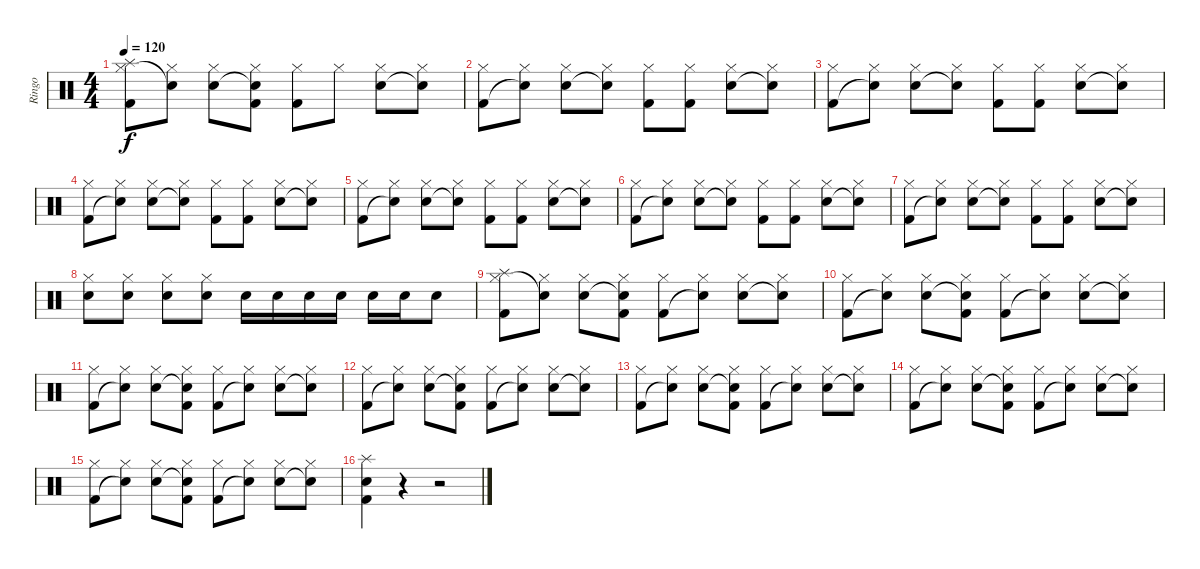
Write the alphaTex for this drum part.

\track ("Ringo" "Ringo") {instrument percussion}
\staff {score}
\articulation defaults
\ts (4 4)
\tempo 120
\clef neutral
\ks c
("Splash (hit)" "Hi-Hat (closed)" "Kick (hit) 2").8{dy f} ("Hi-Hat (closed)" "Snare (hit)"{t}).8 ("Hi-Hat (closed)" "Snare (hit) 2").8 ("Hi-Hat (closed)" "Snare (hit)"{t} "Kick (hit) 2").8 ("Hi-Hat (closed)" "Kick (hit) 2").8 "Hi-Hat (closed)".8 ("Hi-Hat (closed)" "Snare (hit) 2").8 ("Hi-Hat (closed)" "Snare (hit)"{t}).8 |
("Hi-Hat (closed)" "Kick (hit) 2").8 ("Hi-Hat (closed)" "Snare (hit)"{t}).8 ("Hi-Hat (closed)" "Snare (hit) 2").8 ("Hi-Hat (closed)" "Snare (hit)"{t}).8 ("Hi-Hat (closed)" "Kick (hit) 2").8 ("Hi-Hat (closed)" "Kick (hit) 2").8 ("Hi-Hat (closed)" "Snare (hit) 2").8 ("Hi-Hat (closed)" "Snare (hit)"{t}).8 |
("Hi-Hat (closed)" "Kick (hit) 2").8 ("Hi-Hat (closed)" "Snare (hit)"{t}).8 ("Hi-Hat (closed)" "Snare (hit) 2").8 ("Hi-Hat (closed)" "Snare (hit)"{t}).8 ("Hi-Hat (closed)" "Kick (hit) 2").8 ("Hi-Hat (closed)" "Kick (hit) 2").8 ("Hi-Hat (closed)" "Snare (hit) 2").8 ("Hi-Hat (closed)" "Snare (hit)"{t}).8 |
("Hi-Hat (closed)" "Kick (hit) 2").8 ("Hi-Hat (closed)" "Snare (hit)"{t}).8 ("Hi-Hat (closed)" "Snare (hit) 2").8 ("Hi-Hat (closed)" "Snare (hit)"{t}).8 ("Hi-Hat (closed)" "Kick (hit) 2").8 ("Hi-Hat (closed)" "Kick (hit) 2").8 ("Hi-Hat (closed)" "Snare (hit) 2").8 ("Hi-Hat (closed)" "Snare (hit)"{t}).8 |
("Hi-Hat (closed)" "Kick (hit) 2").8 ("Hi-Hat (closed)" "Snare (hit)"{t}).8 ("Hi-Hat (closed)" "Snare (hit) 2").8 ("Hi-Hat (closed)" "Snare (hit)"{t}).8 ("Hi-Hat (closed)" "Kick (hit) 2").8 ("Hi-Hat (closed)" "Kick (hit) 2").8 ("Hi-Hat (closed)" "Snare (hit) 2").8 ("Hi-Hat (closed)" "Snare (hit)"{t}).8 |
("Hi-Hat (closed)" "Kick (hit) 2").8 ("Hi-Hat (closed)" "Snare (hit)"{t}).8 ("Hi-Hat (closed)" "Snare (hit) 2").8 ("Hi-Hat (closed)" "Snare (hit)"{t}).8 ("Hi-Hat (closed)" "Kick (hit) 2").8 ("Hi-Hat (closed)" "Kick (hit) 2").8 ("Hi-Hat (closed)" "Snare (hit) 2").8 ("Hi-Hat (closed)" "Snare (hit)"{t}).8 |
("Hi-Hat (closed)" "Kick (hit) 2").8 ("Hi-Hat (closed)" "Snare (hit)"{t}).8 ("Hi-Hat (closed)" "Snare (hit) 2").8 ("Hi-Hat (closed)" "Snare (hit)"{t}).8 ("Hi-Hat (closed)" "Kick (hit) 2").8 ("Hi-Hat (closed)" "Kick (hit) 2").8 ("Hi-Hat (closed)" "Snare (hit) 2").8 ("Hi-Hat (closed)" "Snare (hit)"{t}).8 |
("Hi-Hat (closed)" "Snare (hit) 2").8 ("Hi-Hat (closed)" "Snare (hit) 2").8 ("Hi-Hat (closed)" "Snare (hit) 2").8 ("Hi-Hat (closed)" "Snare (hit) 2").8 "Snare (hit) 2".16 "Snare (hit) 2".16 "Snare (hit) 2".16 "Snare (hit) 2".16 "Snare (hit) 2".16 "Snare (hit) 2".16 "Snare (hit) 2".8 |
("Splash (hit)" "Hi-Hat (closed)" "Kick (hit) 2").8 ("Hi-Hat (closed)" "Snare (hit)"{t}).8 ("Hi-Hat (closed)" "Snare (hit) 2").8 ("Hi-Hat (closed)" "Snare (hit)"{t} "Kick (hit) 2").8 ("Hi-Hat (closed)" "Kick (hit) 2").8 ("Hi-Hat (closed)" "Snare (hit)"{t}).8 ("Hi-Hat (closed)" "Snare (hit) 2").8 ("Hi-Hat (closed)" "Snare (hit)"{t}).8 |
("Hi-Hat (closed)" "Kick (hit) 2").8 ("Hi-Hat (closed)" "Snare (hit)"{t}).8 ("Hi-Hat (closed)" "Snare (hit) 2").8 ("Hi-Hat (closed)" "Snare (hit)"{t} "Kick (hit) 2").8 ("Hi-Hat (closed)" "Kick (hit) 2").8 ("Hi-Hat (closed)" "Snare (hit)"{t}).8 ("Hi-Hat (closed)" "Snare (hit) 2").8 ("Hi-Hat (closed)" "Snare (hit)"{t}).8 |
("Hi-Hat (closed)" "Kick (hit) 2").8 ("Hi-Hat (closed)" "Snare (hit)"{t}).8 ("Hi-Hat (closed)" "Snare (hit) 2").8 ("Hi-Hat (closed)" "Snare (hit)"{t} "Kick (hit) 2").8 ("Hi-Hat (closed)" "Kick (hit) 2").8 ("Hi-Hat (closed)" "Snare (hit)"{t}).8 ("Hi-Hat (closed)" "Snare (hit) 2").8 ("Hi-Hat (closed)" "Snare (hit)"{t}).8 |
("Hi-Hat (closed)" "Kick (hit) 2").8 ("Hi-Hat (closed)" "Snare (hit)"{t}).8 ("Hi-Hat (closed)" "Snare (hit) 2").8 ("Hi-Hat (closed)" "Snare (hit)"{t} "Kick (hit) 2").8 ("Hi-Hat (closed)" "Kick (hit) 2").8 ("Hi-Hat (closed)" "Snare (hit)"{t}).8 ("Hi-Hat (closed)" "Snare (hit) 2").8 ("Hi-Hat (closed)" "Snare (hit)"{t}).8 |
("Hi-Hat (closed)" "Kick (hit) 2").8 ("Hi-Hat (closed)" "Snare (hit)"{t}).8 ("Hi-Hat (closed)" "Snare (hit) 2").8 ("Hi-Hat (closed)" "Snare (hit)"{t} "Kick (hit) 2").8 ("Hi-Hat (closed)" "Kick (hit) 2").8 ("Hi-Hat (closed)" "Snare (hit)"{t}).8 ("Hi-Hat (closed)" "Snare (hit) 2").8 ("Hi-Hat (closed)" "Snare (hit)"{t}).8 |
("Hi-Hat (closed)" "Kick (hit) 2").8 ("Hi-Hat (closed)" "Snare (hit)"{t}).8 ("Hi-Hat (closed)" "Snare (hit) 2").8 ("Hi-Hat (closed)" "Snare (hit)"{t} "Kick (hit) 2").8 ("Hi-Hat (closed)" "Kick (hit) 2").8 ("Hi-Hat (closed)" "Snare (hit)"{t}).8 ("Hi-Hat (closed)" "Snare (hit) 2").8 ("Hi-Hat (closed)" "Snare (hit)"{t}).8 |
("Hi-Hat (closed)" "Kick (hit) 2").8 ("Hi-Hat (closed)" "Snare (hit)"{t}).8 ("Hi-Hat (closed)" "Snare (hit) 2").8 ("Hi-Hat (closed)" "Snare (hit)"{t} "Kick (hit) 2").8 ("Hi-Hat (closed)" "Kick (hit) 2").8 ("Hi-Hat (closed)" "Snare (hit)"{t}).8 ("Hi-Hat (closed)" "Snare (hit) 2").8 ("Hi-Hat (closed)" "Snare (hit)"{t}).8 |
("Splash (hit)" "Snare (hit) 2" "Kick (hit) 2").4 r.4 r.2
